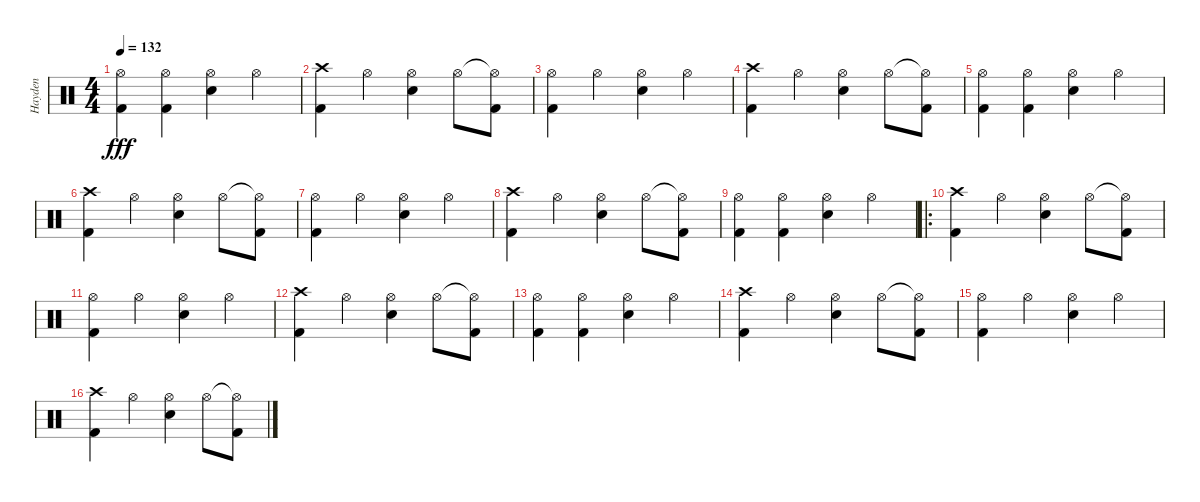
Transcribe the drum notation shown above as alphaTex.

\track ("Hayden" "Hayden") {instrument percussion}
\staff {score}
\articulation defaults
\ts (4 4)
\tempo 132
\clef neutral
\ks c
("Hi-Hat (open)" "Kick (hit) 2").4{dy fff} ("Hi-Hat (open)" "Kick (hit) 2").4 ("Hi-Hat (open)" "Electric Snare (hit)").4 "Hi-Hat (open)".4 |
("Crash high (hit)" "Kick (hit) 2").4 "Hi-Hat (open)".4 ("Hi-Hat (open)" "Electric Snare (hit)").4 "Hi-Hat (open)".8 ("Hi-Hat (open)"{t} "Kick (hit) 2").8 |
("Hi-Hat (open)" "Kick (hit) 2").4 "Hi-Hat (open)".4 ("Hi-Hat (open)" "Electric Snare (hit)").4 "Hi-Hat (open)".4 |
("Crash high (hit)" "Kick (hit) 2").4 "Hi-Hat (open)".4 ("Hi-Hat (open)" "Electric Snare (hit)").4 "Hi-Hat (open)".8 ("Hi-Hat (open)"{t} "Kick (hit) 2").8 |
("Hi-Hat (open)" "Kick (hit) 2").4 ("Hi-Hat (open)" "Kick (hit) 2").4 ("Hi-Hat (open)" "Electric Snare (hit)").4 "Hi-Hat (open)".4 |
("Crash high (hit)" "Kick (hit) 2").4 "Hi-Hat (open)".4 ("Hi-Hat (open)" "Electric Snare (hit)").4 "Hi-Hat (open)".8 ("Hi-Hat (open)"{t} "Kick (hit) 2").8 |
("Hi-Hat (open)" "Kick (hit) 2").4 "Hi-Hat (open)".4 ("Hi-Hat (open)" "Electric Snare (hit)").4 "Hi-Hat (open)".4 |
("Crash high (hit)" "Kick (hit) 2").4 "Hi-Hat (open)".4 ("Hi-Hat (open)" "Electric Snare (hit)").4 "Hi-Hat (open)".8 ("Hi-Hat (open)"{t} "Kick (hit) 2").8 |
("Hi-Hat (open)" "Kick (hit) 2").4 ("Hi-Hat (open)" "Kick (hit) 2").4 ("Hi-Hat (open)" "Electric Snare (hit)").4 "Hi-Hat (open)".4 |
\ro
("Crash high (hit)" "Kick (hit) 2").4 "Hi-Hat (open)".4 ("Hi-Hat (open)" "Electric Snare (hit)").4 "Hi-Hat (open)".8 ("Hi-Hat (open)"{t} "Kick (hit) 2").8 |
("Hi-Hat (open)" "Kick (hit) 2").4 "Hi-Hat (open)".4 ("Hi-Hat (open)" "Electric Snare (hit)").4 "Hi-Hat (open)".4 |
("Crash high (hit)" "Kick (hit) 2").4 "Hi-Hat (open)".4 ("Hi-Hat (open)" "Electric Snare (hit)").4 "Hi-Hat (open)".8 ("Hi-Hat (open)"{t} "Kick (hit) 2").8 |
("Hi-Hat (open)" "Kick (hit) 2").4 ("Hi-Hat (open)" "Kick (hit) 2").4 ("Hi-Hat (open)" "Electric Snare (hit)").4 "Hi-Hat (open)".4 |
("Crash high (hit)" "Kick (hit) 2").4 "Hi-Hat (open)".4 ("Hi-Hat (open)" "Electric Snare (hit)").4 "Hi-Hat (open)".8 ("Hi-Hat (open)"{t} "Kick (hit) 2").8 |
("Hi-Hat (open)" "Kick (hit) 2").4 "Hi-Hat (open)".4 ("Hi-Hat (open)" "Electric Snare (hit)").4 "Hi-Hat (open)".4 |
("Crash high (hit)" "Kick (hit) 2").4 "Hi-Hat (open)".4 ("Hi-Hat (open)" "Electric Snare (hit)").4 "Hi-Hat (open)".8 ("Hi-Hat (open)"{t} "Kick (hit) 2").8
